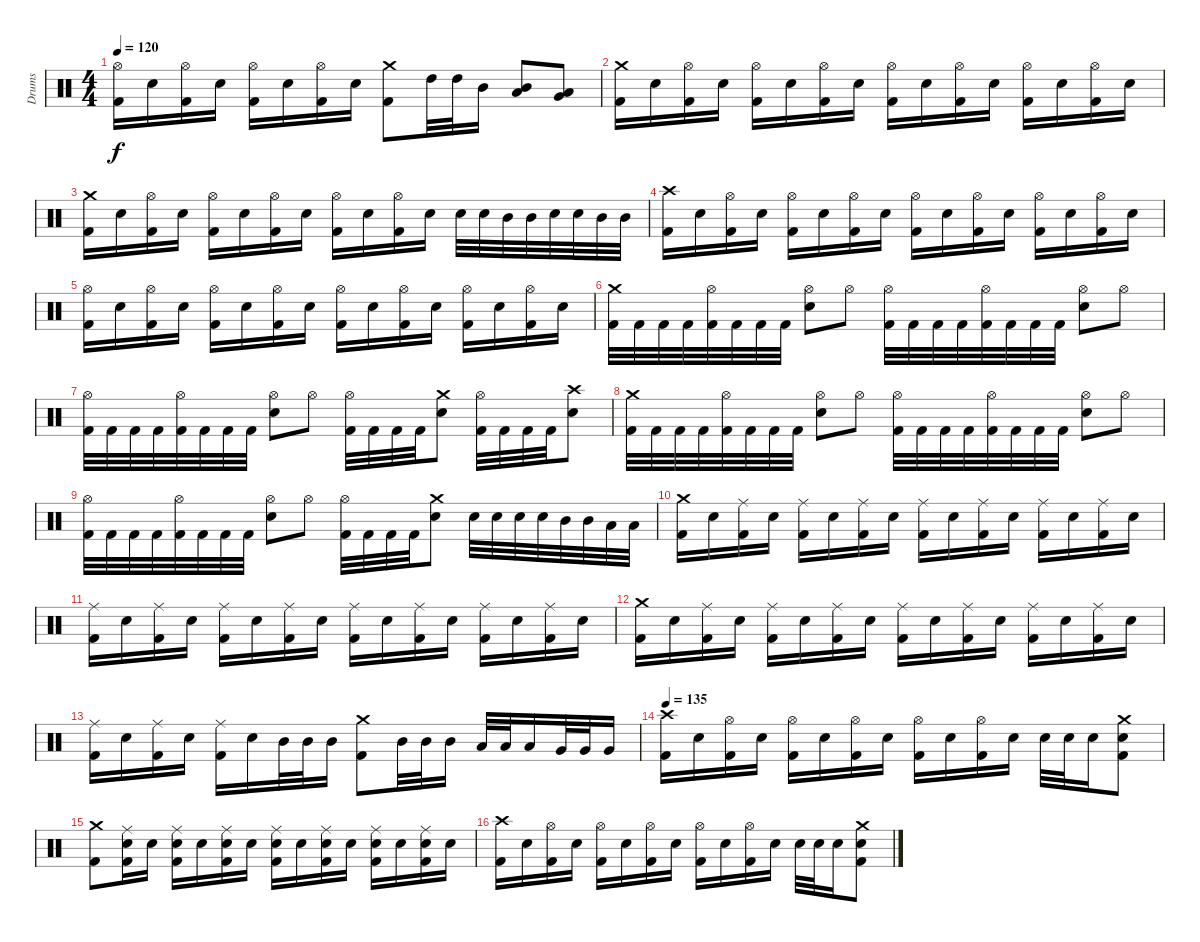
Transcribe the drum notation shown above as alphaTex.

\track ("Drums" "Drums") {instrument percussion}
\staff {score}
\articulation defaults
\ts (4 4)
\tempo 120
\clef neutral
\ks c
("Kick (hit) 2" "Hi-Hat (open)").16{dy f} "Electric Snare (hit)".16 ("Kick (hit) 2" "Hi-Hat (open)").16 "Electric Snare (hit)".16 ("Kick (hit) 2" "Hi-Hat (open)").16 "Electric Snare (hit)".16 ("Kick (hit) 2" "Hi-Hat (open)").16 "Electric Snare (hit)".16 ("Kick (hit) 2" "Crash medium (hit)").8 "High Tom (hit)".32 "High Tom (hit)".32 "Mid Tom (hit)".16 ("Low Tom (hit)" "Mid Tom (hit)").8 ("Very Low Tom (hit)" "Low Tom (hit)").8 |
("Kick (hit) 2" "Crash medium (hit)").16 "Electric Snare (hit)".16 ("Kick (hit) 2" "Hi-Hat (open)").16 "Electric Snare (hit)".16 ("Kick (hit) 2" "Hi-Hat (open)").16 "Electric Snare (hit)".16 ("Kick (hit) 2" "Hi-Hat (open)").16 "Electric Snare (hit)".16 ("Kick (hit) 2" "Hi-Hat (open)").16 "Electric Snare (hit)".16 ("Kick (hit) 2" "Hi-Hat (open)").16 "Electric Snare (hit)".16 ("Kick (hit) 2" "Hi-Hat (open)").16 "Electric Snare (hit)".16 ("Kick (hit) 2" "Hi-Hat (open)").16 "Electric Snare (hit)".16 |
("Kick (hit) 2" "Crash medium (hit)").16 "Electric Snare (hit)".16 ("Kick (hit) 2" "Hi-Hat (open)").16 "Electric Snare (hit)".16 ("Kick (hit) 2" "Hi-Hat (open)").16 "Electric Snare (hit)".16 ("Kick (hit) 2" "Hi-Hat (open)").16 "Electric Snare (hit)".16 ("Kick (hit) 2" "Hi-Hat (open)").16 "Electric Snare (hit)".16 ("Kick (hit) 2" "Hi-Hat (open)").16 "Electric Snare (hit)".16 "Electric Snare (hit)".32 "Electric Snare (hit)".32 "Mid Tom (hit)".32 "Mid Tom (hit)".32 "Electric Snare (hit)".32 "Electric Snare (hit)".32 "Mid Tom (hit)".32 "Mid Tom (hit)".32 |
("Kick (hit) 2" "Crash high (hit)").16 "Electric Snare (hit)".16 ("Kick (hit) 2" "Hi-Hat (open)").16 "Electric Snare (hit)".16 ("Kick (hit) 2" "Hi-Hat (open)").16 "Electric Snare (hit)".16 ("Kick (hit) 2" "Hi-Hat (open)").16 "Electric Snare (hit)".16 ("Kick (hit) 2" "Hi-Hat (open)").16 "Electric Snare (hit)".16 ("Kick (hit) 2" "Hi-Hat (open)").16 "Electric Snare (hit)".16 ("Kick (hit) 2" "Hi-Hat (open)").16 "Electric Snare (hit)".16 ("Kick (hit) 2" "Hi-Hat (open)").16 "Electric Snare (hit)".16 |
("Kick (hit) 2" "Hi-Hat (open)").16 "Electric Snare (hit)".16 ("Kick (hit) 2" "Hi-Hat (open)").16 "Electric Snare (hit)".16 ("Kick (hit) 2" "Hi-Hat (open)").16 "Electric Snare (hit)".16 ("Kick (hit) 2" "Hi-Hat (open)").16 "Electric Snare (hit)".16 ("Kick (hit) 2" "Hi-Hat (open)").16 "Electric Snare (hit)".16 ("Kick (hit) 2" "Hi-Hat (open)").16 "Electric Snare (hit)".16 ("Kick (hit) 2" "Hi-Hat (open)").16 "Electric Snare (hit)".16 ("Kick (hit) 2" "Hi-Hat (open)").16 "Electric Snare (hit)".16 |
("Kick (hit) 2" "Crash medium (hit)").32 "Kick (hit) 2".32 "Kick (hit) 2".32 "Kick (hit) 2".32 ("Kick (hit) 2" "Hi-Hat (open)").32 "Kick (hit) 2".32 "Kick (hit) 2".32 "Kick (hit) 2".32 ("Electric Snare (hit)" "Hi-Hat (open)").8 "Hi-Hat (open)".8 ("Kick (hit) 2" "Hi-Hat (open)").32 "Kick (hit) 2".32 "Kick (hit) 2".32 "Kick (hit) 2".32 ("Kick (hit) 2" "Hi-Hat (open)").32 "Kick (hit) 2".32 "Kick (hit) 2".32 "Kick (hit) 2".32 ("Electric Snare (hit)" "Hi-Hat (open)").8 "Hi-Hat (open)".8 |
("Kick (hit) 2" "Hi-Hat (open)").32 "Kick (hit) 2".32 "Kick (hit) 2".32 "Kick (hit) 2".32 ("Kick (hit) 2" "Hi-Hat (open)").32 "Kick (hit) 2".32 "Kick (hit) 2".32 "Kick (hit) 2".32 ("Electric Snare (hit)" "Hi-Hat (open)").8 "Hi-Hat (open)".8 ("Kick (hit) 2" "Hi-Hat (open)").32 "Kick (hit) 2".32 "Kick (hit) 2".32 "Kick (hit) 2".32 ("Electric Snare (hit)" "Crash medium (hit)").8 ("Kick (hit) 2" "Hi-Hat (open)").32 "Kick (hit) 2".32 "Kick (hit) 2".32 "Kick (hit) 2".32 ("Electric Snare (hit)" "Crash high (hit)").8 |
("Kick (hit) 2" "Crash medium (hit)").32 "Kick (hit) 2".32 "Kick (hit) 2".32 "Kick (hit) 2".32 ("Kick (hit) 2" "Hi-Hat (open)").32 "Kick (hit) 2".32 "Kick (hit) 2".32 "Kick (hit) 2".32 ("Electric Snare (hit)" "Hi-Hat (open)").8 "Hi-Hat (open)".8 ("Kick (hit) 2" "Hi-Hat (open)").32 "Kick (hit) 2".32 "Kick (hit) 2".32 "Kick (hit) 2".32 ("Kick (hit) 2" "Hi-Hat (open)").32 "Kick (hit) 2".32 "Kick (hit) 2".32 "Kick (hit) 2".32 ("Electric Snare (hit)" "Hi-Hat (open)").8 "Hi-Hat (open)".8 |
("Kick (hit) 2" "Hi-Hat (open)").32 "Kick (hit) 2".32 "Kick (hit) 2".32 "Kick (hit) 2".32 ("Kick (hit) 2" "Hi-Hat (open)").32 "Kick (hit) 2".32 "Kick (hit) 2".32 "Kick (hit) 2".32 ("Electric Snare (hit)" "Hi-Hat (open)").8 "Hi-Hat (open)".8 ("Kick (hit) 2" "Hi-Hat (open)").32 "Kick (hit) 2".32 "Kick (hit) 2".32 "Kick (hit) 2".32 ("Electric Snare (hit)" "Crash medium (hit)").8 "Electric Snare (hit)".32 "Electric Snare (hit)".32 "Electric Snare (hit)".32 "Electric Snare (hit)".32 "Mid Tom (hit)".32 "Mid Tom (hit)".32 "Low Tom (hit)".32 "Low Tom (hit)".32 |
("Kick (hit) 2" "Crash medium (hit)").16 "Electric Snare (hit)".16 ("Kick (hit) 2" "Ride (middle)").16 "Electric Snare (hit)".16 ("Kick (hit) 2" "Ride (middle)").16 "Electric Snare (hit)".16 ("Kick (hit) 2" "Ride (middle)").16 "Electric Snare (hit)".16 ("Kick (hit) 2" "Ride (middle)").16 "Electric Snare (hit)".16 ("Kick (hit) 2" "Ride (middle)").16 "Electric Snare (hit)".16 ("Kick (hit) 2" "Ride (middle)").16 "Electric Snare (hit)".16 ("Kick (hit) 2" "Ride (middle)").16 "Electric Snare (hit)".16 |
("Kick (hit) 2" "Ride (middle)").16 "Electric Snare (hit)".16 ("Kick (hit) 2" "Ride (middle)").16 "Electric Snare (hit)".16 ("Kick (hit) 2" "Ride (middle)").16 "Electric Snare (hit)".16 ("Kick (hit) 2" "Ride (middle)").16 "Electric Snare (hit)".16 ("Kick (hit) 2" "Ride (middle)").16 "Electric Snare (hit)".16 ("Kick (hit) 2" "Ride (middle)").16 "Electric Snare (hit)".16 ("Kick (hit) 2" "Ride (middle)").16 "Electric Snare (hit)".16 ("Kick (hit) 2" "Ride (middle)").16 "Electric Snare (hit)".16 |
("Kick (hit) 2" "Crash medium (hit)").16 "Electric Snare (hit)".16 ("Kick (hit) 2" "Ride (middle)").16 "Electric Snare (hit)".16 ("Kick (hit) 2" "Ride (middle)").16 "Electric Snare (hit)".16 ("Kick (hit) 2" "Ride (middle)").16 "Electric Snare (hit)".16 ("Kick (hit) 2" "Ride (middle)").16 "Electric Snare (hit)".16 ("Kick (hit) 2" "Ride (middle)").16 "Electric Snare (hit)".16 ("Kick (hit) 2" "Ride (middle)").16 "Electric Snare (hit)".16 ("Kick (hit) 2" "Ride (middle)").16 "Electric Snare (hit)".16 |
("Kick (hit) 2" "Ride (middle)").16 "Electric Snare (hit)".16 ("Kick (hit) 2" "Ride (middle)").16 "Electric Snare (hit)".16 ("Kick (hit) 2" "Ride (middle)").16 "Electric Snare (hit)".16 "Mid Tom (hit)".32 "Mid Tom (hit)".32 "Mid Tom (hit)".16 ("Kick (hit) 2" "Crash medium (hit)").8 "Mid Tom (hit)".32 "Mid Tom (hit)".32 "Mid Tom (hit)".16 "Low Tom (hit)".32 "Low Tom (hit)".32 "Low Tom (hit)".16 "Very Low Tom (hit)".32 "Very Low Tom (hit)".32 "Very Low Tom (hit)".16 |
\tempo 135
("Kick (hit) 2" "Crash high (hit)").16 "Electric Snare (hit)".16 ("Kick (hit) 2" "Hi-Hat (open)").16 "Electric Snare (hit)".16 ("Kick (hit) 2" "Hi-Hat (open)").16 "Electric Snare (hit)".16 ("Kick (hit) 2" "Hi-Hat (open)").16 "Electric Snare (hit)".16 ("Kick (hit) 2" "Hi-Hat (open)").16 "Electric Snare (hit)".16 ("Kick (hit) 2" "Hi-Hat (open)").16 "Electric Snare (hit)".16 "Electric Snare (hit)".32 "Electric Snare (hit)".32 "Electric Snare (hit)".16 ("Kick (hit) 2" "Electric Snare (hit)" "Crash medium (hit)").8 |
("Kick (hit) 2" "Crash medium (hit)").8 ("Kick (hit) 2" "Electric Snare (hit)" "Ride (middle)").16 "Electric Snare (hit)".16 ("Kick (hit) 2" "Electric Snare (hit)" "Ride (middle)").16 "Electric Snare (hit)".16 ("Kick (hit) 2" "Electric Snare (hit)" "Ride (middle)").16 "Electric Snare (hit)".16 ("Kick (hit) 2" "Electric Snare (hit)" "Ride (middle)").16 "Electric Snare (hit)".16 ("Kick (hit) 2" "Electric Snare (hit)" "Ride (middle)").16 "Electric Snare (hit)".16 ("Kick (hit) 2" "Electric Snare (hit)" "Ride (middle)").16 "Electric Snare (hit)".16 ("Kick (hit) 2" "Electric Snare (hit)" "Ride (middle)").16 "Electric Snare (hit)".16 |
("Kick (hit) 2" "Crash high (hit)").16 "Electric Snare (hit)".16 ("Kick (hit) 2" "Hi-Hat (open)").16 "Electric Snare (hit)".16 ("Kick (hit) 2" "Hi-Hat (open)").16 "Electric Snare (hit)".16 ("Kick (hit) 2" "Hi-Hat (open)").16 "Electric Snare (hit)".16 ("Kick (hit) 2" "Hi-Hat (open)").16 "Electric Snare (hit)".16 ("Kick (hit) 2" "Hi-Hat (open)").16 "Electric Snare (hit)".16 "Electric Snare (hit)".32 "Electric Snare (hit)".32 "Electric Snare (hit)".16 ("Kick (hit) 2" "Electric Snare (hit)" "Crash medium (hit)").8
